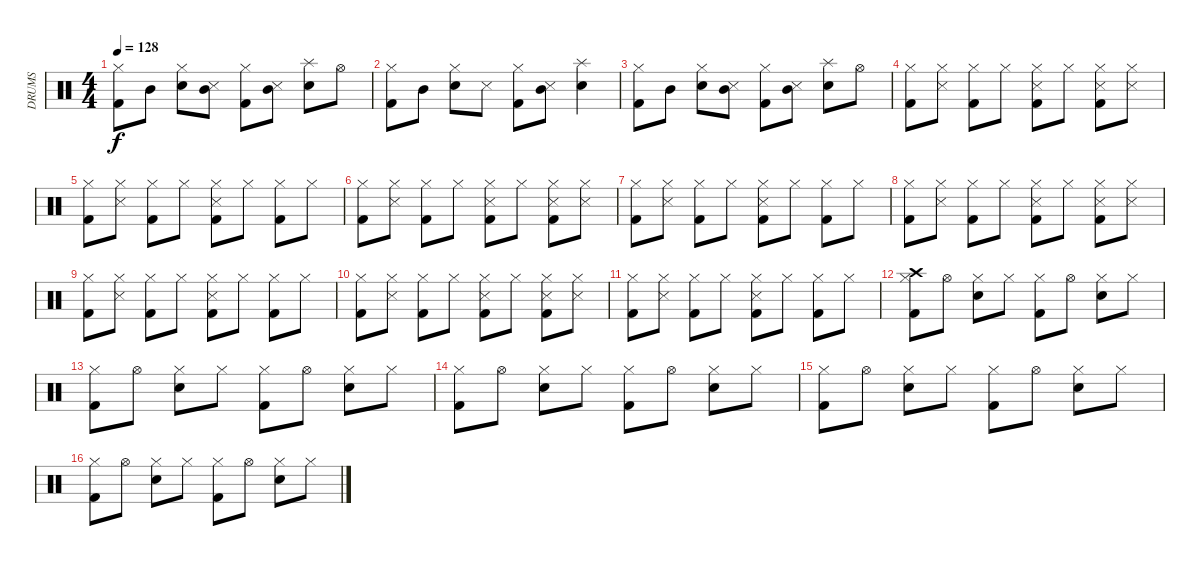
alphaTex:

\track ("DRUMS" "DRUMS") {instrument percussion}
\staff {score}
\articulation defaults
\ts (4 4)
\tempo 128
\clef neutral
\ks c
("Kick (hit) 2" "Hi-Hat (closed)").8{dy f} "Mid Tom (hit)".8 ("Electric Snare (hit)" "Hi-Hat (closed)").8 ("Mid Tom (hit)" "Snare (side stick) 3").8 ("Kick (hit) 2" "Hi-Hat (closed)").8 ("Mid Tom (hit)" "Snare (side stick) 3").8 ("Electric Snare (hit)" "Splash (hit)").8 "Hi-Hat (open)".8 |
("Kick (hit) 2" "Hi-Hat (closed)").8 "Mid Tom (hit)".8 ("Electric Snare (hit)" "Hi-Hat (closed)").8 "Snare (side stick) 3".8 ("Kick (hit) 2" "Hi-Hat (closed)").8 ("Mid Tom (hit)" "Snare (side stick) 3").8 ("Electric Snare (hit)" "Splash (hit)").4 |
("Kick (hit) 2" "Hi-Hat (closed)").8 "Mid Tom (hit)".8 ("Electric Snare (hit)" "Hi-Hat (closed)").8 ("Mid Tom (hit)" "Snare (side stick) 3").8 ("Kick (hit) 2" "Hi-Hat (closed)").8 ("Mid Tom (hit)" "Snare (side stick) 3").8 ("Electric Snare (hit)" "Splash (hit)").8 "Hi-Hat (open)".8 |
("Kick (hit) 2" "Hi-Hat (closed)").8 ("Snare (side stick) 3" "Hi-Hat (closed)").8 ("Kick (hit) 2" "Hi-Hat (closed)").8 "Hi-Hat (closed)".8 ("Kick (hit) 2" "Hi-Hat (closed)" "Snare (side stick) 3").8 "Hi-Hat (closed)".8 ("Kick (hit) 2" "Hi-Hat (closed)" "Snare (side stick) 3").8 ("Hi-Hat (closed)" "Snare (side stick) 3").8 |
("Kick (hit) 2" "Hi-Hat (closed)").8 ("Snare (side stick) 3" "Hi-Hat (closed)").8 ("Kick (hit) 2" "Hi-Hat (closed)").8 "Hi-Hat (closed)".8 ("Kick (hit) 2" "Hi-Hat (closed)" "Snare (side stick) 3").8 "Hi-Hat (closed)".8 ("Kick (hit) 2" "Hi-Hat (closed)").8 "Hi-Hat (closed)".8 |
("Kick (hit) 2" "Hi-Hat (closed)").8 ("Snare (side stick) 3" "Hi-Hat (closed)").8 ("Kick (hit) 2" "Hi-Hat (closed)").8 "Hi-Hat (closed)".8 ("Kick (hit) 2" "Hi-Hat (closed)" "Snare (side stick) 3").8 "Hi-Hat (closed)".8 ("Kick (hit) 2" "Hi-Hat (closed)" "Snare (side stick) 3").8 ("Hi-Hat (closed)" "Snare (side stick) 3").8 |
("Kick (hit) 2" "Hi-Hat (closed)").8 ("Snare (side stick) 3" "Hi-Hat (closed)").8 ("Kick (hit) 2" "Hi-Hat (closed)").8 "Hi-Hat (closed)".8 ("Kick (hit) 2" "Hi-Hat (closed)" "Snare (side stick) 3").8 "Hi-Hat (closed)".8 ("Kick (hit) 2" "Hi-Hat (closed)").8 "Hi-Hat (closed)".8 |
("Kick (hit) 2" "Hi-Hat (closed)").8 ("Snare (side stick) 3" "Hi-Hat (closed)").8 ("Kick (hit) 2" "Hi-Hat (closed)").8 "Hi-Hat (closed)".8 ("Kick (hit) 2" "Hi-Hat (closed)" "Snare (side stick) 3").8 "Hi-Hat (closed)".8 ("Kick (hit) 2" "Hi-Hat (closed)" "Snare (side stick) 3").8 ("Hi-Hat (closed)" "Snare (side stick) 3").8 |
("Kick (hit) 2" "Hi-Hat (closed)").8 ("Snare (side stick) 3" "Hi-Hat (closed)").8 ("Kick (hit) 2" "Hi-Hat (closed)").8 "Hi-Hat (closed)".8 ("Kick (hit) 2" "Hi-Hat (closed)" "Snare (side stick) 3").8 "Hi-Hat (closed)".8 ("Kick (hit) 2" "Hi-Hat (closed)").8 "Hi-Hat (closed)".8 |
("Kick (hit) 2" "Hi-Hat (closed)").8 ("Snare (side stick) 3" "Hi-Hat (closed)").8 ("Kick (hit) 2" "Hi-Hat (closed)").8 "Hi-Hat (closed)".8 ("Kick (hit) 2" "Hi-Hat (closed)" "Snare (side stick) 3").8 "Hi-Hat (closed)".8 ("Kick (hit) 2" "Hi-Hat (closed)" "Snare (side stick) 3").8 ("Hi-Hat (closed)" "Snare (side stick) 3").8 |
("Kick (hit) 2" "Hi-Hat (closed)").8 ("Snare (side stick) 3" "Hi-Hat (closed)").8 ("Kick (hit) 2" "Hi-Hat (closed)").8 "Hi-Hat (closed)".8 ("Kick (hit) 2" "Hi-Hat (closed)" "Snare (side stick) 3").8 "Hi-Hat (closed)".8 ("Kick (hit) 2" "Hi-Hat (closed)").8 "Hi-Hat (closed)".8 |
("Kick (hit) 2" "Hi-Hat (closed)" "Crash high (hit)").8 "Hi-Hat (open)".8 ("Electric Snare (hit)" "Hi-Hat (closed)").8 "Hi-Hat (closed)".8 ("Kick (hit) 2" "Hi-Hat (closed)").8 "Hi-Hat (open)".8 ("Electric Snare (hit)" "Hi-Hat (closed)").8 "Hi-Hat (closed)".8 |
("Kick (hit) 2" "Hi-Hat (closed)").8 "Hi-Hat (open)".8 ("Electric Snare (hit)" "Hi-Hat (closed)").8 "Hi-Hat (closed)".8 ("Kick (hit) 2" "Hi-Hat (closed)").8 "Hi-Hat (open)".8 ("Electric Snare (hit)" "Hi-Hat (closed)").8 "Hi-Hat (closed)".8 |
("Kick (hit) 2" "Hi-Hat (closed)").8 "Hi-Hat (open)".8 ("Electric Snare (hit)" "Hi-Hat (closed)").8 "Hi-Hat (closed)".8 ("Kick (hit) 2" "Hi-Hat (closed)").8 "Hi-Hat (open)".8 ("Electric Snare (hit)" "Hi-Hat (closed)").8 "Hi-Hat (closed)".8 |
("Kick (hit) 2" "Hi-Hat (closed)").8 "Hi-Hat (open)".8 ("Electric Snare (hit)" "Hi-Hat (closed)").8 "Hi-Hat (closed)".8 ("Kick (hit) 2" "Hi-Hat (closed)").8 "Hi-Hat (open)".8 ("Electric Snare (hit)" "Hi-Hat (closed)").8 "Hi-Hat (closed)".8 |
("Kick (hit) 2" "Hi-Hat (closed)").8 "Hi-Hat (open)".8 ("Electric Snare (hit)" "Hi-Hat (closed)").8 "Hi-Hat (closed)".8 ("Kick (hit) 2" "Hi-Hat (closed)").8 "Hi-Hat (open)".8 ("Electric Snare (hit)" "Hi-Hat (closed)").8 "Hi-Hat (closed)".8
